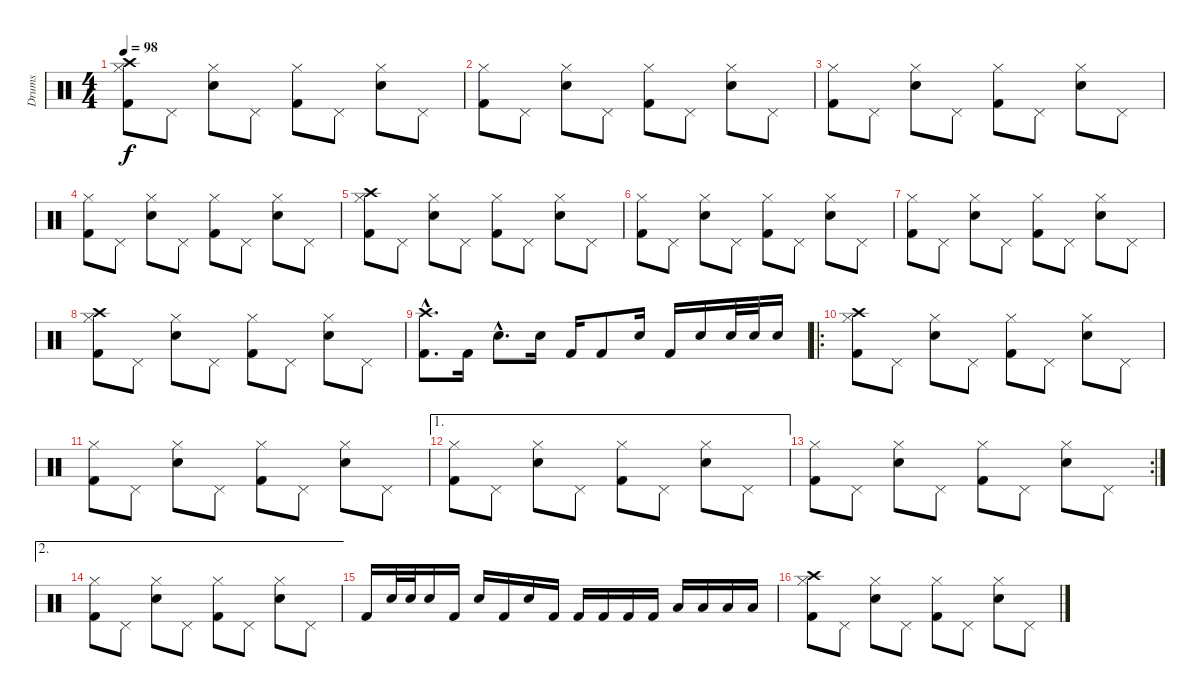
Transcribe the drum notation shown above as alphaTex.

\track ("Drums" "Drums") {instrument percussion}
\staff {score}
\articulation defaults
\ts (4 4)
\tempo 98
\clef neutral
\ks c
("Hi-Hat (closed)" "Kick (hit) 2" "Crash high (hit)").8{dy f} "Pedal Hi-Hat (hit)".8 ("Hi-Hat (closed)" "Snare (hit) 2").8 "Pedal Hi-Hat (hit)".8 ("Hi-Hat (closed)" "Kick (hit) 2").8 "Pedal Hi-Hat (hit)".8 ("Hi-Hat (closed)" "Snare (hit) 2").8 "Pedal Hi-Hat (hit)".8 |
("Hi-Hat (closed)" "Kick (hit) 2").8 "Pedal Hi-Hat (hit)".8 ("Hi-Hat (closed)" "Snare (hit) 2").8 "Pedal Hi-Hat (hit)".8 ("Hi-Hat (closed)" "Kick (hit) 2").8 "Pedal Hi-Hat (hit)".8 ("Hi-Hat (closed)" "Snare (hit) 2").8 "Pedal Hi-Hat (hit)".8 |
("Hi-Hat (closed)" "Kick (hit) 2").8 "Pedal Hi-Hat (hit)".8 ("Hi-Hat (closed)" "Snare (hit) 2").8 "Pedal Hi-Hat (hit)".8 ("Hi-Hat (closed)" "Kick (hit) 2").8 "Pedal Hi-Hat (hit)".8 ("Hi-Hat (closed)" "Snare (hit) 2").8 "Pedal Hi-Hat (hit)".8 |
("Hi-Hat (closed)" "Kick (hit) 2").8 "Pedal Hi-Hat (hit)".8 ("Hi-Hat (closed)" "Snare (hit) 2").8 "Pedal Hi-Hat (hit)".8 ("Hi-Hat (closed)" "Kick (hit) 2").8 "Pedal Hi-Hat (hit)".8 ("Hi-Hat (closed)" "Snare (hit) 2").8 "Pedal Hi-Hat (hit)".8 |
("Hi-Hat (closed)" "Kick (hit) 2" "Crash high (hit)").8 "Pedal Hi-Hat (hit)".8 ("Hi-Hat (closed)" "Snare (hit) 2").8 "Pedal Hi-Hat (hit)".8 ("Hi-Hat (closed)" "Kick (hit) 2").8 "Pedal Hi-Hat (hit)".8 ("Hi-Hat (closed)" "Snare (hit) 2").8 "Pedal Hi-Hat (hit)".8 |
("Hi-Hat (closed)" "Kick (hit) 2").8 "Pedal Hi-Hat (hit)".8 ("Hi-Hat (closed)" "Snare (hit) 2").8 "Pedal Hi-Hat (hit)".8 ("Hi-Hat (closed)" "Kick (hit) 2").8 "Pedal Hi-Hat (hit)".8 ("Hi-Hat (closed)" "Snare (hit) 2").8 "Pedal Hi-Hat (hit)".8 |
("Hi-Hat (closed)" "Kick (hit) 2").8 "Pedal Hi-Hat (hit)".8 ("Hi-Hat (closed)" "Snare (hit) 2").8 "Pedal Hi-Hat (hit)".8 ("Hi-Hat (closed)" "Kick (hit) 2").8 "Pedal Hi-Hat (hit)".8 ("Hi-Hat (closed)" "Snare (hit) 2").8 "Pedal Hi-Hat (hit)".8 |
("Hi-Hat (closed)" "Kick (hit) 2" "Crash high (hit)").8 "Pedal Hi-Hat (hit)".8 ("Hi-Hat (closed)" "Snare (hit) 2").8 "Pedal Hi-Hat (hit)".8 ("Hi-Hat (closed)" "Kick (hit) 2").8 "Pedal Hi-Hat (hit)".8 ("Hi-Hat (closed)" "Snare (hit) 2").8 "Pedal Hi-Hat (hit)".8 |
("Crash high (hit)"{hac} "Kick (hit) 2"{hac}).8{d} "Kick (hit) 2".16 "Snare (hit) 2"{hac}.8{d} "Snare (hit) 2".16 "Kick (hit) 2".16 "Kick (hit) 2".8 "Snare (hit) 2".16 "Kick (hit) 2".16 "Snare (hit) 2".16 "Snare (hit) 2".32 "Snare (hit) 2".32 "Snare (hit) 2".16 |
\ro
("Hi-Hat (closed)" "Kick (hit) 2" "Crash high (hit)").8 "Pedal Hi-Hat (hit)".8 ("Hi-Hat (closed)" "Snare (hit) 2").8 "Pedal Hi-Hat (hit)".8 ("Hi-Hat (closed)" "Kick (hit) 2").8 "Pedal Hi-Hat (hit)".8 ("Hi-Hat (closed)" "Snare (hit) 2").8 "Pedal Hi-Hat (hit)".8 |
("Hi-Hat (closed)" "Kick (hit) 2").8 "Pedal Hi-Hat (hit)".8 ("Hi-Hat (closed)" "Snare (hit) 2").8 "Pedal Hi-Hat (hit)".8 ("Hi-Hat (closed)" "Kick (hit) 2").8 "Pedal Hi-Hat (hit)".8 ("Hi-Hat (closed)" "Snare (hit) 2").8 "Pedal Hi-Hat (hit)".8 |
\ae 1
("Hi-Hat (closed)" "Kick (hit) 2").8 "Pedal Hi-Hat (hit)".8 ("Hi-Hat (closed)" "Snare (hit) 2").8 "Pedal Hi-Hat (hit)".8 ("Hi-Hat (closed)" "Kick (hit) 2").8 "Pedal Hi-Hat (hit)".8 ("Hi-Hat (closed)" "Snare (hit) 2").8 "Pedal Hi-Hat (hit)".8 |
\rc 2
("Hi-Hat (closed)" "Kick (hit) 2").8 "Pedal Hi-Hat (hit)".8 ("Hi-Hat (closed)" "Snare (hit) 2").8 "Pedal Hi-Hat (hit)".8 ("Hi-Hat (closed)" "Kick (hit) 2").8 "Pedal Hi-Hat (hit)".8 ("Hi-Hat (closed)" "Snare (hit) 2").8 "Pedal Hi-Hat (hit)".8 |
\ae 2
("Hi-Hat (closed)" "Kick (hit) 2").8 "Pedal Hi-Hat (hit)".8 ("Hi-Hat (closed)" "Snare (hit) 2").8 "Pedal Hi-Hat (hit)".8 ("Hi-Hat (closed)" "Kick (hit) 2").8 "Pedal Hi-Hat (hit)".8 ("Hi-Hat (closed)" "Snare (hit) 2").8 "Pedal Hi-Hat (hit)".8 |
"Kick (hit) 2".16 "Snare (hit) 2".32 "Snare (hit) 2".32 "Snare (hit) 2".16 "Kick (hit) 2".16 "Snare (hit) 2".16 "Kick (hit) 2".16 "Snare (hit) 2".16 "Kick (hit) 2".16 "Kick (hit) 2".16 "Kick (hit) 2".16 "Kick (hit) 2".16 "Kick (hit) 2".16 "Low Tom (hit)".16 "Low Tom (hit)".16 "Low Tom (hit)".16 "Low Tom (hit)".16 |
("Hi-Hat (closed)" "Kick (hit) 2" "Crash high (hit)").8 "Pedal Hi-Hat (hit)".8 ("Hi-Hat (closed)" "Snare (hit) 2").8 "Pedal Hi-Hat (hit)".8 ("Hi-Hat (closed)" "Kick (hit) 2").8 "Pedal Hi-Hat (hit)".8 ("Hi-Hat (closed)" "Snare (hit) 2").8 "Pedal Hi-Hat (hit)".8
